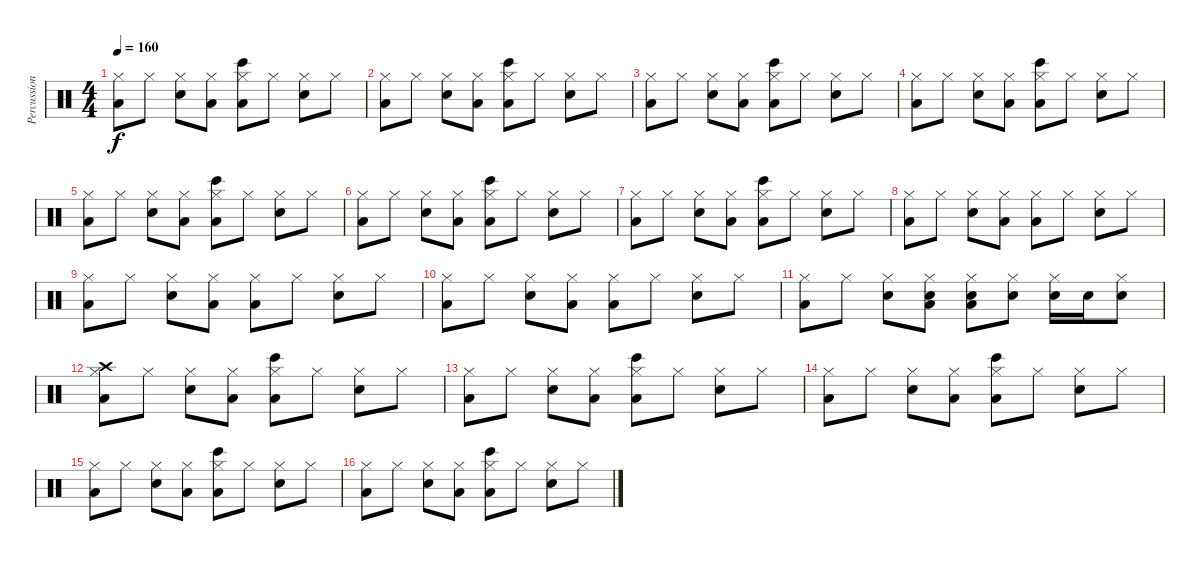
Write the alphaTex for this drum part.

\track ("Percussions" "Percussion") {instrument percussion}
\staff {score}
\articulation defaults
\ts (4 4)
\tempo 160
\clef neutral
\ks c
("Low Floor Tom (hit)" "Hi-Hat (closed)").8{dy f} "Hi-Hat (closed)".8 ("Electric Snare (hit)" "Hi-Hat (closed)").8 ("Low Floor Tom (hit)" "Hi-Hat (closed)").8 ("Low Floor Tom (hit)" "Bongo High (hit)" "Hi-Hat (closed)").8 "Hi-Hat (closed)".8 ("Electric Snare (hit)" "Hi-Hat (closed)").8 "Hi-Hat (closed)".8 |
("Low Floor Tom (hit)" "Hi-Hat (closed)").8 "Hi-Hat (closed)".8 ("Electric Snare (hit)" "Hi-Hat (closed)").8 ("Low Floor Tom (hit)" "Hi-Hat (closed)").8 ("Low Floor Tom (hit)" "Bongo High (hit)" "Hi-Hat (closed)").8 "Hi-Hat (closed)".8 ("Electric Snare (hit)" "Hi-Hat (closed)").8 "Hi-Hat (closed)".8 |
("Low Floor Tom (hit)" "Hi-Hat (closed)").8 "Hi-Hat (closed)".8 ("Electric Snare (hit)" "Hi-Hat (closed)").8 ("Low Floor Tom (hit)" "Hi-Hat (closed)").8 ("Low Floor Tom (hit)" "Bongo High (hit)" "Hi-Hat (closed)").8 "Hi-Hat (closed)".8 ("Electric Snare (hit)" "Hi-Hat (closed)").8 "Hi-Hat (closed)".8 |
("Low Floor Tom (hit)" "Hi-Hat (closed)").8 "Hi-Hat (closed)".8 ("Electric Snare (hit)" "Hi-Hat (closed)").8 ("Low Floor Tom (hit)" "Hi-Hat (closed)").8 ("Low Floor Tom (hit)" "Bongo High (hit)" "Hi-Hat (closed)").8 "Hi-Hat (closed)".8 ("Electric Snare (hit)" "Hi-Hat (closed)").8 "Hi-Hat (closed)".8 |
("Low Floor Tom (hit)" "Hi-Hat (closed)").8 "Hi-Hat (closed)".8 ("Electric Snare (hit)" "Hi-Hat (closed)").8 ("Low Floor Tom (hit)" "Hi-Hat (closed)").8 ("Low Floor Tom (hit)" "Bongo High (hit)" "Hi-Hat (closed)").8 "Hi-Hat (closed)".8 ("Electric Snare (hit)" "Hi-Hat (closed)").8 "Hi-Hat (closed)".8 |
("Low Floor Tom (hit)" "Hi-Hat (closed)").8 "Hi-Hat (closed)".8 ("Electric Snare (hit)" "Hi-Hat (closed)").8 ("Low Floor Tom (hit)" "Hi-Hat (closed)").8 ("Low Floor Tom (hit)" "Bongo High (hit)" "Hi-Hat (closed)").8 "Hi-Hat (closed)".8 ("Electric Snare (hit)" "Hi-Hat (closed)").8 "Hi-Hat (closed)".8 |
("Low Floor Tom (hit)" "Hi-Hat (closed)").8 "Hi-Hat (closed)".8 ("Electric Snare (hit)" "Hi-Hat (closed)").8 ("Low Floor Tom (hit)" "Hi-Hat (closed)").8 ("Low Floor Tom (hit)" "Bongo High (hit)" "Hi-Hat (closed)").8 "Hi-Hat (closed)".8 ("Electric Snare (hit)" "Hi-Hat (closed)").8 "Hi-Hat (closed)".8 |
("Low Floor Tom (hit)" "Hi-Hat (closed)").8 "Hi-Hat (closed)".8 ("Electric Snare (hit)" "Hi-Hat (closed)").8 ("Low Floor Tom (hit)" "Hi-Hat (closed)").8 ("Low Floor Tom (hit)" "Hi-Hat (closed)").8 "Hi-Hat (closed)".8 ("Electric Snare (hit)" "Hi-Hat (closed)").8 "Hi-Hat (closed)".8 |
("Low Floor Tom (hit)" "Hi-Hat (closed)").8 "Hi-Hat (closed)".8 ("Electric Snare (hit)" "Hi-Hat (closed)").8 ("Low Floor Tom (hit)" "Hi-Hat (closed)").8 ("Low Floor Tom (hit)" "Hi-Hat (closed)").8 "Hi-Hat (closed)".8 ("Electric Snare (hit)" "Hi-Hat (closed)").8 "Hi-Hat (closed)".8 |
("Low Floor Tom (hit)" "Hi-Hat (closed)").8 "Hi-Hat (closed)".8 ("Electric Snare (hit)" "Hi-Hat (closed)").8 ("Low Floor Tom (hit)" "Hi-Hat (closed)").8 ("Low Floor Tom (hit)" "Hi-Hat (closed)").8 "Hi-Hat (closed)".8 ("Electric Snare (hit)" "Hi-Hat (closed)").8 "Hi-Hat (closed)".8 |
("Low Floor Tom (hit)" "Hi-Hat (closed)").8 "Hi-Hat (closed)".8 ("Electric Snare (hit)" "Hi-Hat (closed)").8 ("Low Floor Tom (hit)" "Electric Snare (hit)" "Hi-Hat (closed)").8 ("Low Floor Tom (hit)" "Electric Snare (hit)" "Hi-Hat (closed)").8 ("Electric Snare (hit)" "Hi-Hat (closed)").8 ("Electric Snare (hit)" "Hi-Hat (closed)").16 "Electric Snare (hit)".16 ("Electric Snare (hit)" "Hi-Hat (closed)").8 |
("Low Floor Tom (hit)" "Hi-Hat (closed)" "Crash high (hit)").8 "Hi-Hat (closed)".8 ("Electric Snare (hit)" "Hi-Hat (closed)").8 ("Low Floor Tom (hit)" "Hi-Hat (closed)").8 ("Low Floor Tom (hit)" "Bongo High (hit)" "Hi-Hat (closed)").8 "Hi-Hat (closed)".8 ("Electric Snare (hit)" "Hi-Hat (closed)").8 "Hi-Hat (closed)".8 |
("Low Floor Tom (hit)" "Hi-Hat (closed)").8 "Hi-Hat (closed)".8 ("Electric Snare (hit)" "Hi-Hat (closed)").8 ("Low Floor Tom (hit)" "Hi-Hat (closed)").8 ("Low Floor Tom (hit)" "Bongo High (hit)" "Hi-Hat (closed)").8 "Hi-Hat (closed)".8 ("Electric Snare (hit)" "Hi-Hat (closed)").8 "Hi-Hat (closed)".8 |
("Low Floor Tom (hit)" "Hi-Hat (closed)").8 "Hi-Hat (closed)".8 ("Electric Snare (hit)" "Hi-Hat (closed)").8 ("Low Floor Tom (hit)" "Hi-Hat (closed)").8 ("Low Floor Tom (hit)" "Bongo High (hit)" "Hi-Hat (closed)").8 "Hi-Hat (closed)".8 ("Electric Snare (hit)" "Hi-Hat (closed)").8 "Hi-Hat (closed)".8 |
("Low Floor Tom (hit)" "Hi-Hat (closed)").8 "Hi-Hat (closed)".8 ("Electric Snare (hit)" "Hi-Hat (closed)").8 ("Low Floor Tom (hit)" "Hi-Hat (closed)").8 ("Low Floor Tom (hit)" "Bongo High (hit)" "Hi-Hat (closed)").8 "Hi-Hat (closed)".8 ("Electric Snare (hit)" "Hi-Hat (closed)").8 "Hi-Hat (closed)".8 |
("Low Floor Tom (hit)" "Hi-Hat (closed)").8 "Hi-Hat (closed)".8 ("Electric Snare (hit)" "Hi-Hat (closed)").8 ("Low Floor Tom (hit)" "Hi-Hat (closed)").8 ("Low Floor Tom (hit)" "Bongo High (hit)" "Hi-Hat (closed)").8 "Hi-Hat (closed)".8 ("Electric Snare (hit)" "Hi-Hat (closed)").8 "Hi-Hat (closed)".8
